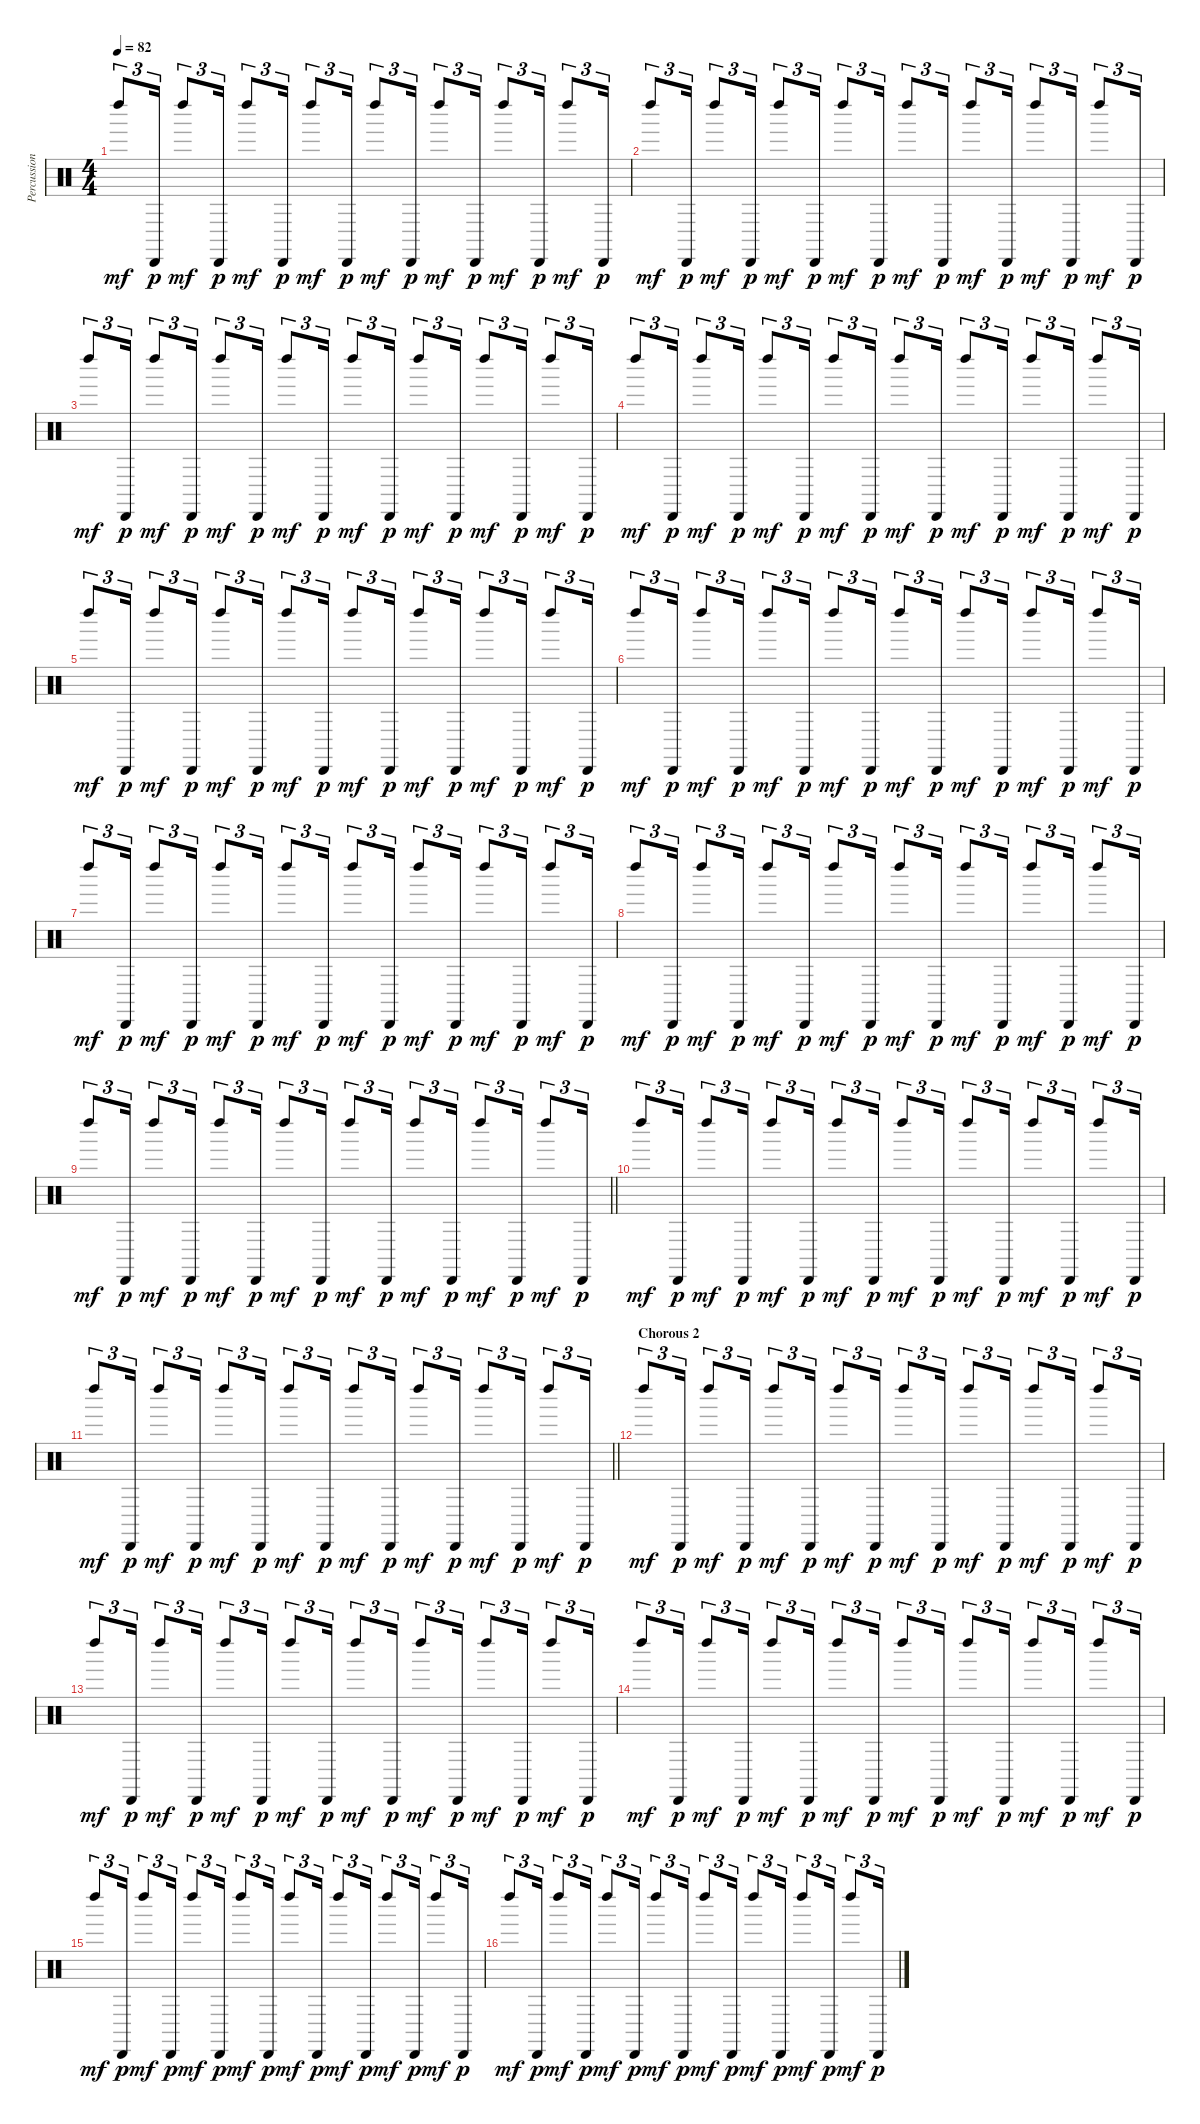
\track ("Percussion" "Percussion") {instrument percussion}
\staff {score}
\articulation defaults
\ts (4 4)
\tempo 82
\clef neutral
\ks c "Left Maraca (hit)".8{tu (3 2) dy mf} "Cabasa (hit)".16{tu (3 2) dy p} "Left Maraca (hit)".8{tu (3 2) dy mf} "Cabasa (hit)".16{tu (3 2) dy p} "Left Maraca (hit)".8{tu (3 2) dy mf} "Cabasa (hit)".16{tu (3 2) dy p} "Left Maraca (hit)".8{tu (3 2) dy mf} "Cabasa (hit)".16{tu (3 2) dy p} "Left Maraca (hit)".8{tu (3 2) dy mf} "Cabasa (hit)".16{tu (3 2) dy p} "Left Maraca (hit)".8{tu (3 2) dy mf} "Cabasa (hit)".16{tu (3 2) dy p} "Left Maraca (hit)".8{tu (3 2) dy mf} "Cabasa (hit)".16{tu (3 2) dy p} "Left Maraca (hit)".8{tu (3 2) dy mf} "Cabasa (hit)".16{tu (3 2) dy p}
|
"Left Maraca (hit)".8{tu (3 2) dy mf} "Cabasa (hit)".16{tu (3 2) dy p} "Left Maraca (hit)".8{tu (3 2) dy mf} "Cabasa (hit)".16{tu (3 2) dy p} "Left Maraca (hit)".8{tu (3 2) dy mf} "Cabasa (hit)".16{tu (3 2) dy p} "Left Maraca (hit)".8{tu (3 2) dy mf} "Cabasa (hit)".16{tu (3 2) dy p} "Left Maraca (hit)".8{tu (3 2) dy mf} "Cabasa (hit)".16{tu (3 2) dy p} "Left Maraca (hit)".8{tu (3 2) dy mf} "Cabasa (hit)".16{tu (3 2) dy p} "Left Maraca (hit)".8{tu (3 2) dy mf} "Cabasa (hit)".16{tu (3 2) dy p} "Left Maraca (hit)".8{tu (3 2) dy mf} "Cabasa (hit)".16{tu (3 2) dy p} |
"Left Maraca (hit)".8{tu (3 2) dy mf} "Cabasa (hit)".16{tu (3 2) dy p} "Left Maraca (hit)".8{tu (3 2) dy mf} "Cabasa (hit)".16{tu (3 2) dy p} "Left Maraca (hit)".8{tu (3 2) dy mf} "Cabasa (hit)".16{tu (3 2) dy p} "Left Maraca (hit)".8{tu (3 2) dy mf} "Cabasa (hit)".16{tu (3 2) dy p} "Left Maraca (hit)".8{tu (3 2) dy mf} "Cabasa (hit)".16{tu (3 2) dy p} "Left Maraca (hit)".8{tu (3 2) dy mf} "Cabasa (hit)".16{tu (3 2) dy p} "Left Maraca (hit)".8{tu (3 2) dy mf} "Cabasa (hit)".16{tu (3 2) dy p} "Left Maraca (hit)".8{tu (3 2) dy mf} "Cabasa (hit)".16{tu (3 2) dy p} |
"Left Maraca (hit)".8{tu (3 2) dy mf} "Cabasa (hit)".16{tu (3 2) dy p} "Left Maraca (hit)".8{tu (3 2) dy mf} "Cabasa (hit)".16{tu (3 2) dy p} "Left Maraca (hit)".8{tu (3 2) dy mf} "Cabasa (hit)".16{tu (3 2) dy p} "Left Maraca (hit)".8{tu (3 2) dy mf} "Cabasa (hit)".16{tu (3 2) dy p} "Left Maraca (hit)".8{tu (3 2) dy mf} "Cabasa (hit)".16{tu (3 2) dy p} "Left Maraca (hit)".8{tu (3 2) dy mf} "Cabasa (hit)".16{tu (3 2) dy p} "Left Maraca (hit)".8{tu (3 2) dy mf} "Cabasa (hit)".16{tu (3 2) dy p} "Left Maraca (hit)".8{tu (3 2) dy mf} "Cabasa (hit)".16{tu (3 2) dy p} |
"Left Maraca (hit)".8{tu (3 2) dy mf} "Cabasa (hit)".16{tu (3 2) dy p} "Left Maraca (hit)".8{tu (3 2) dy mf} "Cabasa (hit)".16{tu (3 2) dy p} "Left Maraca (hit)".8{tu (3 2) dy mf} "Cabasa (hit)".16{tu (3 2) dy p} "Left Maraca (hit)".8{tu (3 2) dy mf} "Cabasa (hit)".16{tu (3 2) dy p} "Left Maraca (hit)".8{tu (3 2) dy mf} "Cabasa (hit)".16{tu (3 2) dy p} "Left Maraca (hit)".8{tu (3 2) dy mf} "Cabasa (hit)".16{tu (3 2) dy p} "Left Maraca (hit)".8{tu (3 2) dy mf} "Cabasa (hit)".16{tu (3 2) dy p} "Left Maraca (hit)".8{tu (3 2) dy mf} "Cabasa (hit)".16{tu (3 2) dy p} |
"Left Maraca (hit)".8{tu (3 2) dy mf} "Cabasa (hit)".16{tu (3 2) dy p} "Left Maraca (hit)".8{tu (3 2) dy mf} "Cabasa (hit)".16{tu (3 2) dy p} "Left Maraca (hit)".8{tu (3 2) dy mf} "Cabasa (hit)".16{tu (3 2) dy p} "Left Maraca (hit)".8{tu (3 2) dy mf} "Cabasa (hit)".16{tu (3 2) dy p} "Left Maraca (hit)".8{tu (3 2) dy mf} "Cabasa (hit)".16{tu (3 2) dy p} "Left Maraca (hit)".8{tu (3 2) dy mf} "Cabasa (hit)".16{tu (3 2) dy p} "Left Maraca (hit)".8{tu (3 2) dy mf} "Cabasa (hit)".16{tu (3 2) dy p} "Left Maraca (hit)".8{tu (3 2) dy mf} "Cabasa (hit)".16{tu (3 2) dy p} |
"Left Maraca (hit)".8{tu (3 2) dy mf} "Cabasa (hit)".16{tu (3 2) dy p} "Left Maraca (hit)".8{tu (3 2) dy mf} "Cabasa (hit)".16{tu (3 2) dy p} "Left Maraca (hit)".8{tu (3 2) dy mf} "Cabasa (hit)".16{tu (3 2) dy p} "Left Maraca (hit)".8{tu (3 2) dy mf} "Cabasa (hit)".16{tu (3 2) dy p} "Left Maraca (hit)".8{tu (3 2) dy mf} "Cabasa (hit)".16{tu (3 2) dy p} "Left Maraca (hit)".8{tu (3 2) dy mf} "Cabasa (hit)".16{tu (3 2) dy p} "Left Maraca (hit)".8{tu (3 2) dy mf} "Cabasa (hit)".16{tu (3 2) dy p} "Left Maraca (hit)".8{tu (3 2) dy mf} "Cabasa (hit)".16{tu (3 2) dy p} |
"Left Maraca (hit)".8{tu (3 2) dy mf} "Cabasa (hit)".16{tu (3 2) dy p} "Left Maraca (hit)".8{tu (3 2) dy mf} "Cabasa (hit)".16{tu (3 2) dy p} "Left Maraca (hit)".8{tu (3 2) dy mf} "Cabasa (hit)".16{tu (3 2) dy p} "Left Maraca (hit)".8{tu (3 2) dy mf} "Cabasa (hit)".16{tu (3 2) dy p} "Left Maraca (hit)".8{tu (3 2) dy mf} "Cabasa (hit)".16{tu (3 2) dy p} "Left Maraca (hit)".8{tu (3 2) dy mf} "Cabasa (hit)".16{tu (3 2) dy p} "Left Maraca (hit)".8{tu (3 2) dy mf} "Cabasa (hit)".16{tu (3 2) dy p} "Left Maraca (hit)".8{tu (3 2) dy mf} "Cabasa (hit)".16{tu (3 2) dy p} |
\barLineRight lightlight "Left Maraca (hit)".8{tu (3 2) dy mf} "Cabasa (hit)".16{tu (3 2) dy p} "Left Maraca (hit)".8{tu (3 2) dy mf} "Cabasa (hit)".16{tu (3 2) dy p} "Left Maraca (hit)".8{tu (3 2) dy mf} "Cabasa (hit)".16{tu (3 2) dy p} "Left Maraca (hit)".8{tu (3 2) dy mf} "Cabasa (hit)".16{tu (3 2) dy p} "Left Maraca (hit)".8{tu (3 2) dy mf} "Cabasa (hit)".16{tu (3 2) dy p} "Left Maraca (hit)".8{tu (3 2) dy mf} "Cabasa (hit)".16{tu (3 2) dy p} "Left Maraca (hit)".8{tu (3 2) dy mf} "Cabasa (hit)".16{tu (3 2) dy p} "Left Maraca (hit)".8{tu (3 2) dy mf} "Cabasa (hit)".16{tu (3 2) dy p}
|
\section ("" "")
"Left Maraca (hit)".8{tu (3 2) dy mf} "Cabasa (hit)".16{tu (3 2) dy p} "Left Maraca (hit)".8{tu (3 2) dy mf} "Cabasa (hit)".16{tu (3 2) dy p} "Left Maraca (hit)".8{tu (3 2) dy mf} "Cabasa (hit)".16{tu (3 2) dy p} "Left Maraca (hit)".8{tu (3 2) dy mf} "Cabasa (hit)".16{tu (3 2) dy p} "Left Maraca (hit)".8{tu (3 2) dy mf} "Cabasa (hit)".16{tu (3 2) dy p} "Left Maraca (hit)".8{tu (3 2) dy mf} "Cabasa (hit)".16{tu (3 2) dy p} "Left Maraca (hit)".8{tu (3 2) dy mf} "Cabasa (hit)".16{tu (3 2) dy p} "Left Maraca (hit)".8{tu (3 2) dy mf} "Cabasa (hit)".16{tu (3 2) dy p} |
\barLineRight lightlight "Left Maraca (hit)".8{tu (3 2) dy mf} "Cabasa (hit)".16{tu (3 2) dy p} "Left Maraca (hit)".8{tu (3 2) dy mf} "Cabasa (hit)".16{tu (3 2) dy p} "Left Maraca (hit)".8{tu (3 2) dy mf} "Cabasa (hit)".16{tu (3 2) dy p} "Left Maraca (hit)".8{tu (3 2) dy mf} "Cabasa (hit)".16{tu (3 2) dy p} "Left Maraca (hit)".8{tu (3 2) dy mf} "Cabasa (hit)".16{tu (3 2) dy p} "Left Maraca (hit)".8{tu (3 2) dy mf} "Cabasa (hit)".16{tu (3 2) dy p} "Left Maraca (hit)".8{tu (3 2) dy mf} "Cabasa (hit)".16{tu (3 2) dy p} "Left Maraca (hit)".8{tu (3 2) dy mf} "Cabasa (hit)".16{tu (3 2) dy p}
|
\section ("" "Chorous 2")
"Left Maraca (hit)".8{tu (3 2) dy mf} "Cabasa (hit)".16{tu (3 2) dy p} "Left Maraca (hit)".8{tu (3 2) dy mf} "Cabasa (hit)".16{tu (3 2) dy p} "Left Maraca (hit)".8{tu (3 2) dy mf} "Cabasa (hit)".16{tu (3 2) dy p} "Left Maraca (hit)".8{tu (3 2) dy mf} "Cabasa (hit)".16{tu (3 2) dy p} "Left Maraca (hit)".8{tu (3 2) dy mf} "Cabasa (hit)".16{tu (3 2) dy p} "Left Maraca (hit)".8{tu (3 2) dy mf} "Cabasa (hit)".16{tu (3 2) dy p} "Left Maraca (hit)".8{tu (3 2) dy mf} "Cabasa (hit)".16{tu (3 2) dy p} "Left Maraca (hit)".8{tu (3 2) dy mf} "Cabasa (hit)".16{tu (3 2) dy p} |
"Left Maraca (hit)".8{tu (3 2) dy mf} "Cabasa (hit)".16{tu (3 2) dy p} "Left Maraca (hit)".8{tu (3 2) dy mf} "Cabasa (hit)".16{tu (3 2) dy p} "Left Maraca (hit)".8{tu (3 2) dy mf} "Cabasa (hit)".16{tu (3 2) dy p} "Left Maraca (hit)".8{tu (3 2) dy mf} "Cabasa (hit)".16{tu (3 2) dy p} "Left Maraca (hit)".8{tu (3 2) dy mf} "Cabasa (hit)".16{tu (3 2) dy p} "Left Maraca (hit)".8{tu (3 2) dy mf} "Cabasa (hit)".16{tu (3 2) dy p} "Left Maraca (hit)".8{tu (3 2) dy mf} "Cabasa (hit)".16{tu (3 2) dy p} "Left Maraca (hit)".8{tu (3 2) dy mf} "Cabasa (hit)".16{tu (3 2) dy p} |
"Left Maraca (hit)".8{tu (3 2) dy mf} "Cabasa (hit)".16{tu (3 2) dy p} "Left Maraca (hit)".8{tu (3 2) dy mf} "Cabasa (hit)".16{tu (3 2) dy p} "Left Maraca (hit)".8{tu (3 2) dy mf} "Cabasa (hit)".16{tu (3 2) dy p} "Left Maraca (hit)".8{tu (3 2) dy mf} "Cabasa (hit)".16{tu (3 2) dy p} "Left Maraca (hit)".8{tu (3 2) dy mf} "Cabasa (hit)".16{tu (3 2) dy p} "Left Maraca (hit)".8{tu (3 2) dy mf} "Cabasa (hit)".16{tu (3 2) dy p} "Left Maraca (hit)".8{tu (3 2) dy mf} "Cabasa (hit)".16{tu (3 2) dy p} "Left Maraca (hit)".8{tu (3 2) dy mf} "Cabasa (hit)".16{tu (3 2) dy p} |
"Left Maraca (hit)".8{tu (3 2) dy mf} "Cabasa (hit)".16{tu (3 2) dy p} "Left Maraca (hit)".8{tu (3 2) dy mf} "Cabasa (hit)".16{tu (3 2) dy p} "Left Maraca (hit)".8{tu (3 2) dy mf} "Cabasa (hit)".16{tu (3 2) dy p} "Left Maraca (hit)".8{tu (3 2) dy mf} "Cabasa (hit)".16{tu (3 2) dy p} "Left Maraca (hit)".8{tu (3 2) dy mf} "Cabasa (hit)".16{tu (3 2) dy p} "Left Maraca (hit)".8{tu (3 2) dy mf} "Cabasa (hit)".16{tu (3 2) dy p} "Left Maraca (hit)".8{tu (3 2) dy mf} "Cabasa (hit)".16{tu (3 2) dy p} "Left Maraca (hit)".8{tu (3 2) dy mf} "Cabasa (hit)".16{tu (3 2) dy p} |
"Left Maraca (hit)".8{tu (3 2) dy mf} "Cabasa (hit)".16{tu (3 2) dy p} "Left Maraca (hit)".8{tu (3 2) dy mf} "Cabasa (hit)".16{tu (3 2) dy p} "Left Maraca (hit)".8{tu (3 2) dy mf} "Cabasa (hit)".16{tu (3 2) dy p} "Left Maraca (hit)".8{tu (3 2) dy mf} "Cabasa (hit)".16{tu (3 2) dy p} "Left Maraca (hit)".8{tu (3 2) dy mf} "Cabasa (hit)".16{tu (3 2) dy p} "Left Maraca (hit)".8{tu (3 2) dy mf} "Cabasa (hit)".16{tu (3 2) dy p} "Left Maraca (hit)".8{tu (3 2) dy mf} "Cabasa (hit)".16{tu (3 2) dy p} "Left Maraca (hit)".8{tu (3 2) dy mf} "Cabasa (hit)".16{tu (3 2) dy p}
